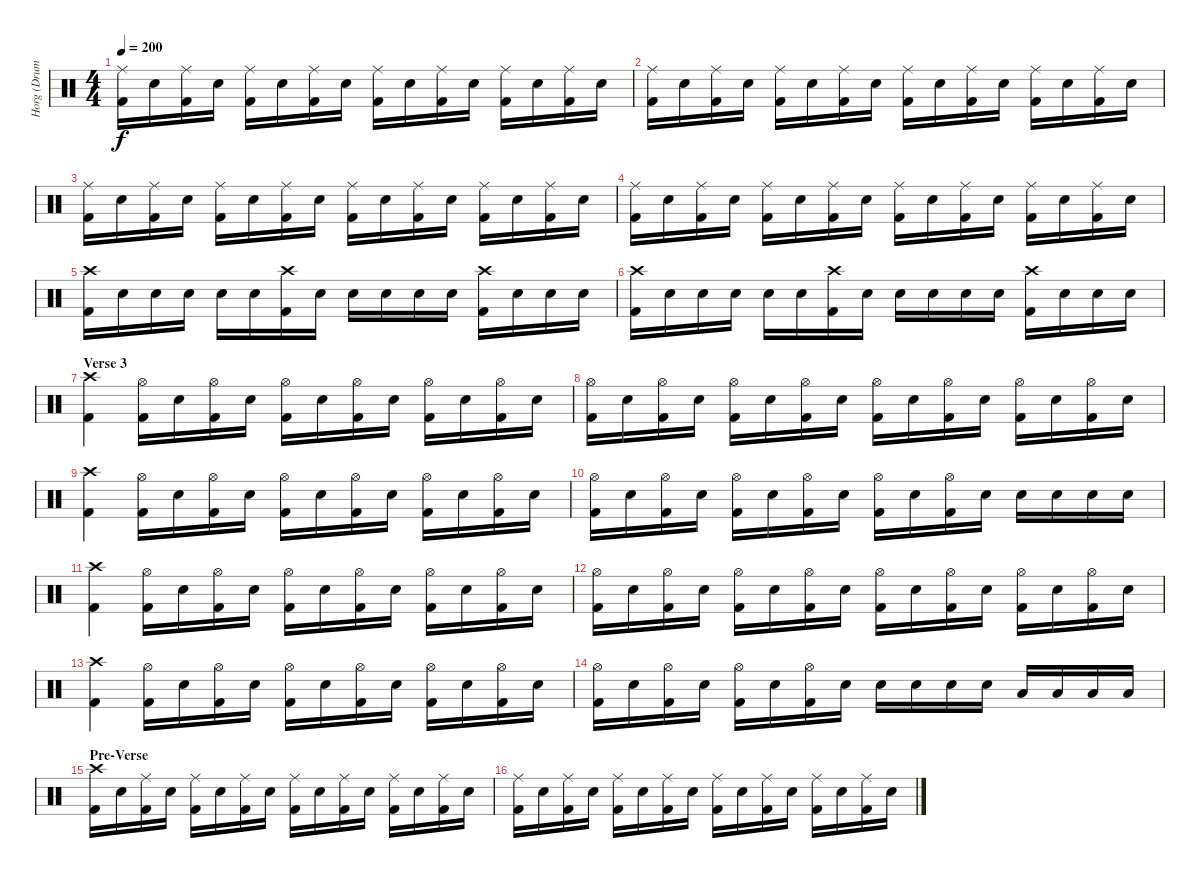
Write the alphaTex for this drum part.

\track ("Horg (Drums)" "Horg (Drum") {instrument percussion}
\staff {score}
\articulation defaults
\ts (4 4)
\tempo 200
\clef neutral
\ks c
("Ride (middle)" "Kick (hit) 2").16{dy f} "Electric Snare (hit)".16 ("Ride (middle)" "Kick (hit) 2").16 "Electric Snare (hit)".16 ("Ride (middle)" "Kick (hit) 2").16 "Electric Snare (hit)".16 ("Ride (middle)" "Kick (hit) 2").16 "Electric Snare (hit)".16 ("Ride (middle)" "Kick (hit) 2").16 "Electric Snare (hit)".16 ("Ride (middle)" "Kick (hit) 2").16 "Electric Snare (hit)".16 ("Ride (middle)" "Kick (hit) 2").16 "Electric Snare (hit)".16 ("Ride (middle)" "Kick (hit) 2").16 "Electric Snare (hit)".16 |
("Ride (middle)" "Kick (hit) 2").16 "Electric Snare (hit)".16 ("Ride (middle)" "Kick (hit) 2").16 "Electric Snare (hit)".16 ("Ride (middle)" "Kick (hit) 2").16 "Electric Snare (hit)".16 ("Ride (middle)" "Kick (hit) 2").16 "Electric Snare (hit)".16 ("Ride (middle)" "Kick (hit) 2").16 "Electric Snare (hit)".16 ("Ride (middle)" "Kick (hit) 2").16 "Electric Snare (hit)".16 ("Ride (middle)" "Kick (hit) 2").16 "Electric Snare (hit)".16 ("Ride (middle)" "Kick (hit) 2").16 "Electric Snare (hit)".16 |
("Ride (middle)" "Kick (hit) 2").16 "Electric Snare (hit)".16 ("Ride (middle)" "Kick (hit) 2").16 "Electric Snare (hit)".16 ("Ride (middle)" "Kick (hit) 2").16 "Electric Snare (hit)".16 ("Ride (middle)" "Kick (hit) 2").16 "Electric Snare (hit)".16 ("Ride (middle)" "Kick (hit) 2").16 "Electric Snare (hit)".16 ("Ride (middle)" "Kick (hit) 2").16 "Electric Snare (hit)".16 ("Ride (middle)" "Kick (hit) 2").16 "Electric Snare (hit)".16 ("Ride (middle)" "Kick (hit) 2").16 "Electric Snare (hit)".16 |
("Ride (middle)" "Kick (hit) 2").16 "Electric Snare (hit)".16 ("Ride (middle)" "Kick (hit) 2").16 "Electric Snare (hit)".16 ("Ride (middle)" "Kick (hit) 2").16 "Electric Snare (hit)".16 ("Ride (middle)" "Kick (hit) 2").16 "Electric Snare (hit)".16 ("Ride (middle)" "Kick (hit) 2").16 "Electric Snare (hit)".16 ("Ride (middle)" "Kick (hit) 2").16 "Electric Snare (hit)".16 ("Ride (middle)" "Kick (hit) 2").16 "Electric Snare (hit)".16 ("Ride (middle)" "Kick (hit) 2").16 "Electric Snare (hit)".16 |
("Crash high (hit)" "Kick (hit) 2").16 "Electric Snare (hit)".16 "Electric Snare (hit)".16 "Electric Snare (hit)".16 "Electric Snare (hit)".16 "Electric Snare (hit)".16 ("Crash high (hit)" "Kick (hit) 2").16 "Electric Snare (hit)".16 "Electric Snare (hit)".16 "Electric Snare (hit)".16 "Electric Snare (hit)".16 "Electric Snare (hit)".16 ("Crash high (hit)" "Kick (hit) 2").16 "Electric Snare (hit)".16 "Electric Snare (hit)".16 "Electric Snare (hit)".16 |
("Crash high (hit)" "Kick (hit) 2").16 "Electric Snare (hit)".16 "Electric Snare (hit)".16 "Electric Snare (hit)".16 "Electric Snare (hit)".16 "Electric Snare (hit)".16 ("Crash high (hit)" "Kick (hit) 2").16 "Electric Snare (hit)".16 "Electric Snare (hit)".16 "Electric Snare (hit)".16 "Electric Snare (hit)".16 "Electric Snare (hit)".16 ("Crash high (hit)" "Kick (hit) 2").16 "Electric Snare (hit)".16 "Electric Snare (hit)".16 "Electric Snare (hit)".16 |
\section ("" "Verse 3")
("Crash high (hit)" "Kick (hit) 2").4 ("Hi-Hat (open)" "Kick (hit) 2").16 "Electric Snare (hit)".16 ("Hi-Hat (open)" "Kick (hit) 2").16 "Electric Snare (hit)".16 ("Hi-Hat (open)" "Kick (hit) 2").16 "Electric Snare (hit)".16 ("Hi-Hat (open)" "Kick (hit) 2").16 "Electric Snare (hit)".16 ("Hi-Hat (open)" "Kick (hit) 2").16 "Electric Snare (hit)".16 ("Hi-Hat (open)" "Kick (hit) 2").16 "Electric Snare (hit)".16 |
("Hi-Hat (open)" "Kick (hit) 2").16 "Electric Snare (hit)".16 ("Hi-Hat (open)" "Kick (hit) 2").16 "Electric Snare (hit)".16 ("Hi-Hat (open)" "Kick (hit) 2").16 "Electric Snare (hit)".16 ("Hi-Hat (open)" "Kick (hit) 2").16 "Electric Snare (hit)".16 ("Hi-Hat (open)" "Kick (hit) 2").16 "Electric Snare (hit)".16 ("Hi-Hat (open)" "Kick (hit) 2").16 "Electric Snare (hit)".16 ("Hi-Hat (open)" "Kick (hit) 2").16 "Electric Snare (hit)".16 ("Hi-Hat (open)" "Kick (hit) 2").16 "Electric Snare (hit)".16 |
("Crash high (hit)" "Kick (hit) 2").4 ("Hi-Hat (open)" "Kick (hit) 2").16 "Electric Snare (hit)".16 ("Hi-Hat (open)" "Kick (hit) 2").16 "Electric Snare (hit)".16 ("Hi-Hat (open)" "Kick (hit) 2").16 "Electric Snare (hit)".16 ("Hi-Hat (open)" "Kick (hit) 2").16 "Electric Snare (hit)".16 ("Hi-Hat (open)" "Kick (hit) 2").16 "Electric Snare (hit)".16 ("Hi-Hat (open)" "Kick (hit) 2").16 "Electric Snare (hit)".16 |
("Hi-Hat (open)" "Kick (hit) 2").16 "Electric Snare (hit)".16 ("Hi-Hat (open)" "Kick (hit) 2").16 "Electric Snare (hit)".16 ("Hi-Hat (open)" "Kick (hit) 2").16 "Electric Snare (hit)".16 ("Hi-Hat (open)" "Kick (hit) 2").16 "Electric Snare (hit)".16 ("Hi-Hat (open)" "Kick (hit) 2").16 "Electric Snare (hit)".16 ("Hi-Hat (open)" "Kick (hit) 2").16 "Electric Snare (hit)".16 "Electric Snare (hit)".16 "Electric Snare (hit)".16 "Electric Snare (hit)".16 "Electric Snare (hit)".16 |
("Crash high (hit)" "Kick (hit) 2").4 ("Hi-Hat (open)" "Kick (hit) 2").16 "Electric Snare (hit)".16 ("Hi-Hat (open)" "Kick (hit) 2").16 "Electric Snare (hit)".16 ("Hi-Hat (open)" "Kick (hit) 2").16 "Electric Snare (hit)".16 ("Hi-Hat (open)" "Kick (hit) 2").16 "Electric Snare (hit)".16 ("Hi-Hat (open)" "Kick (hit) 2").16 "Electric Snare (hit)".16 ("Hi-Hat (open)" "Kick (hit) 2").16 "Electric Snare (hit)".16 |
("Hi-Hat (open)" "Kick (hit) 2").16 "Electric Snare (hit)".16 ("Hi-Hat (open)" "Kick (hit) 2").16 "Electric Snare (hit)".16 ("Hi-Hat (open)" "Kick (hit) 2").16 "Electric Snare (hit)".16 ("Hi-Hat (open)" "Kick (hit) 2").16 "Electric Snare (hit)".16 ("Hi-Hat (open)" "Kick (hit) 2").16 "Electric Snare (hit)".16 ("Hi-Hat (open)" "Kick (hit) 2").16 "Electric Snare (hit)".16 ("Hi-Hat (open)" "Kick (hit) 2").16 "Electric Snare (hit)".16 ("Hi-Hat (open)" "Kick (hit) 2").16 "Electric Snare (hit)".16 |
("Crash high (hit)" "Kick (hit) 2").4 ("Hi-Hat (open)" "Kick (hit) 2").16 "Electric Snare (hit)".16 ("Hi-Hat (open)" "Kick (hit) 2").16 "Electric Snare (hit)".16 ("Hi-Hat (open)" "Kick (hit) 2").16 "Electric Snare (hit)".16 ("Hi-Hat (open)" "Kick (hit) 2").16 "Electric Snare (hit)".16 ("Hi-Hat (open)" "Kick (hit) 2").16 "Electric Snare (hit)".16 ("Hi-Hat (open)" "Kick (hit) 2").16 "Electric Snare (hit)".16 |
("Hi-Hat (open)" "Kick (hit) 2").16 "Electric Snare (hit)".16 ("Hi-Hat (open)" "Kick (hit) 2").16 "Electric Snare (hit)".16 ("Hi-Hat (open)" "Kick (hit) 2").16 "Electric Snare (hit)".16 ("Hi-Hat (open)" "Kick (hit) 2").16 "Electric Snare (hit)".16 "Electric Snare (hit)".16 "Electric Snare (hit)".16 "Electric Snare (hit)".16 "Electric Snare (hit)".16 "Low Tom (hit)".16 "Low Tom (hit)".16 "Low Tom (hit)".16 "Low Tom (hit)".16 |
\section ("" "Pre-Verse")
("Crash high (hit)" "Kick (hit) 2").16 "Electric Snare (hit)".16 ("Ride (middle)" "Kick (hit) 2").16 "Electric Snare (hit)".16 ("Ride (middle)" "Kick (hit) 2").16 "Electric Snare (hit)".16 ("Ride (middle)" "Kick (hit) 2").16 "Electric Snare (hit)".16 ("Ride (middle)" "Kick (hit) 2").16 "Electric Snare (hit)".16 ("Ride (middle)" "Kick (hit) 2").16 "Electric Snare (hit)".16 ("Ride (middle)" "Kick (hit) 2").16 "Electric Snare (hit)".16 ("Ride (middle)" "Kick (hit) 2").16 "Electric Snare (hit)".16 |
("Ride (middle)" "Kick (hit) 2").16 "Electric Snare (hit)".16 ("Ride (middle)" "Kick (hit) 2").16 "Electric Snare (hit)".16 ("Ride (middle)" "Kick (hit) 2").16 "Electric Snare (hit)".16 ("Ride (middle)" "Kick (hit) 2").16 "Electric Snare (hit)".16 ("Ride (middle)" "Kick (hit) 2").16 "Electric Snare (hit)".16 ("Ride (middle)" "Kick (hit) 2").16 "Electric Snare (hit)".16 ("Ride (middle)" "Kick (hit) 2").16 "Electric Snare (hit)".16 ("Ride (middle)" "Kick (hit) 2").16 "Electric Snare (hit)".16
